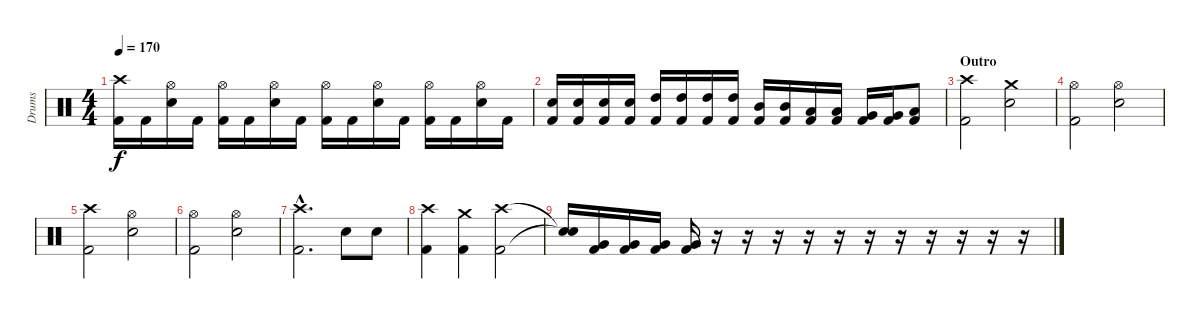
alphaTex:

\track ("Drums" "Drums") {instrument percussion}
\staff {score}
\articulation defaults
\ts (4 4)
\tempo 170
\clef neutral
\ks c
("Crash high (hit)" "Kick (hit) 2").16{dy f} "Kick (hit) 2".16 ("Hi-Hat (open)" "Electric Snare (hit)").16 "Kick (hit) 2".16 ("Hi-Hat (open)" "Kick (hit) 2").16 "Kick (hit) 2".16 ("Hi-Hat (open)" "Electric Snare (hit)").16 "Kick (hit) 2".16 ("Hi-Hat (open)" "Kick (hit) 2").16 "Kick (hit) 2".16 ("Hi-Hat (open)" "Electric Snare (hit)").16 "Kick (hit) 2".16 ("Hi-Hat (open)" "Kick (hit) 2").16 "Kick (hit) 2".16 ("Hi-Hat (open)" "Electric Snare (hit)").16 "Kick (hit) 2".16 |
("Electric Snare (hit)" "Kick (hit) 2").16 ("Electric Snare (hit)" "Kick (hit) 2").16 ("Electric Snare (hit)" "Kick (hit) 2").16 ("Electric Snare (hit)" "Kick (hit) 2").16 ("High Tom (hit)" "Kick (hit) 2").16 ("High Tom (hit)" "Kick (hit) 2").16 ("High Tom (hit)" "Kick (hit) 2").16 ("High Tom (hit)" "Kick (hit) 2").16 ("Mid Tom (hit)" "Kick (hit) 2").16 ("Mid Tom (hit)" "Kick (hit) 2").16 ("Low Tom (hit)" "Kick (hit) 2").16 ("Low Tom (hit)" "Kick (hit) 2").16 ("Very Low Tom (hit)" "Kick (hit) 2").16 ("Very Low Tom (hit)" "Kick (hit) 2").16 ("Low Floor Tom (hit)" "Kick (hit) 2").8 |
\section ("" "Outro")
("Crash high (hit)" "Kick (hit) 2").2 ("Crash medium (hit)" "Snare (hit) 2").2 |
("Hi-Hat (open)" "Kick (hit) 2").2 ("Hi-Hat (open)" "Snare (hit) 2").2 |
("Crash high (hit)" "Kick (hit) 2").2 ("Hi-Hat (open)" "Snare (hit) 2").2 |
("Hi-Hat (open)" "Kick (hit) 2").2 ("Hi-Hat (open)" "Snare (hit) 2").2 |
("Crash high (hit)"{hac} "Kick (hit) 2"{hac}).2{d} "Snare (hit) 2".8 "Snare (hit) 2".8 |
("Crash high (hit)" "Kick (hit) 2").4 ("Crash medium (hit)" "Kick (hit) 2").4 ("Crash high (hit)" "Kick (hit) 2").2 |
("Snare (hit)"{t} "Snare (hit)"{t}).16 ("Very Low Tom (hit)" "Kick (hit) 2").16 ("Very Low Tom (hit)" "Kick (hit) 2").16 ("Very Low Tom (hit)" "Kick (hit) 2").16 ("Very Low Tom (hit)" "Kick (hit) 2").16 r.16 r.16 r.16 r.16 r.16 r.16 r.16 r.16 r.16 r.16 r.16
